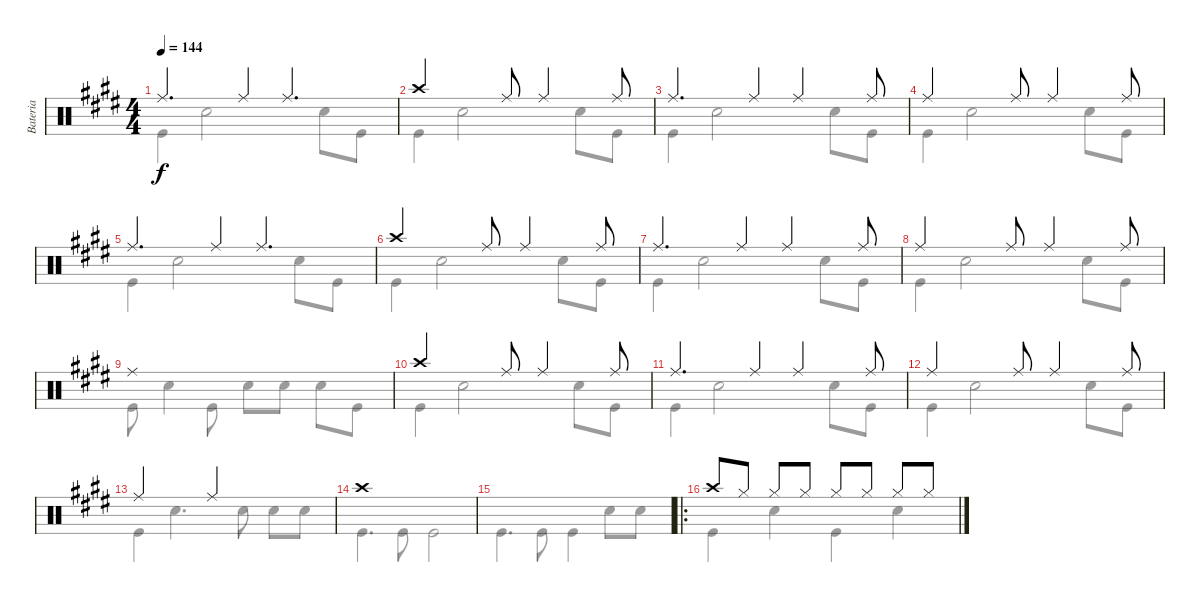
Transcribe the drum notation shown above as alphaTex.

\track ("Bateria" "Bateria") {instrument percussion}
\staff {score}
\articulation defaults
\voice
\ts (4 4)
\tempo 144
\clef neutral
\ks e "Ride (middle)".4{d dy f} "Ride (middle)".4 "Ride (middle)".4{d}
|
"Crash high (hit)".2 "Ride (middle)".8 "Ride (middle)".4 "Ride (middle)".8 |
"Ride (middle)".4{d} "Ride (middle)".4 "Ride (middle)".4 "Ride (middle)".8 |
"Ride (middle)".2 "Ride (middle)".8 "Ride (middle)".4 "Ride (middle)".8 |
"Ride (middle)".4{d} "Ride (middle)".4 "Ride (middle)".4{d} |
"Crash high (hit)".2 "Ride (middle)".8 "Ride (middle)".4 "Ride (middle)".8 |
"Ride (middle)".4{d} "Ride (middle)".4 "Ride (middle)".4 "Ride (middle)".8 |
"Ride (middle)".2 "Ride (middle)".8 "Ride (middle)".4 "Ride (middle)".8 |
"Ride (middle)".1 |
"Crash high (hit)".2 "Ride (middle)".8 "Ride (middle)".4 "Ride (middle)".8 |
"Ride (middle)".4{d} "Ride (middle)".4 "Ride (middle)".4 "Ride (middle)".8 |
"Ride (middle)".2 "Ride (middle)".8 "Ride (middle)".4 "Ride (middle)".8 |
"Ride (middle)".2 "Ride (middle)".2 |
"Crash high (hit)".1 |
|
\ro "Crash high (hit)".8 "Hi-Hat (closed)".8 "Hi-Hat (closed)".8 "Hi-Hat (closed)".8 "Hi-Hat (closed)".8 "Hi-Hat (closed)".8 "Hi-Hat (closed)".8 "Hi-Hat (closed)".8
\voice
\clef neutral
\ottava regular
\simile none
\ks e "Kick (hit)".4{dy f} "Snare (hit) 2".2 "Snare (hit) 2".8 "Kick (hit)".8
|
"Kick (hit)".4 "Snare (hit) 2".2 "Snare (hit) 2".8 "Kick (hit)".8 |
"Kick (hit)".4 "Snare (hit) 2".2 "Snare (hit) 2".8 "Kick (hit)".8 |
"Kick (hit)".4 "Snare (hit) 2".2 "Snare (hit) 2".8 "Kick (hit)".8 |
"Kick (hit)".4 "Snare (hit) 2".2 "Snare (hit) 2".8 "Kick (hit)".8 |
"Kick (hit)".4 "Snare (hit) 2".2 "Snare (hit) 2".8 "Kick (hit)".8 |
"Kick (hit)".4 "Snare (hit) 2".2 "Snare (hit) 2".8 "Kick (hit)".8 |
"Kick (hit)".4 "Snare (hit) 2".2 "Snare (hit) 2".8 "Kick (hit)".8 |
"Kick (hit)".8 "Snare (hit) 2".4 "Kick (hit)".8 "Snare (hit) 2".8 "Snare (hit) 2".8 "Snare (hit) 2".8 "Kick (hit)".8 |
"Kick (hit)".4 "Snare (hit) 2".2 "Snare (hit) 2".8 "Kick (hit)".8 |
"Kick (hit)".4 "Snare (hit) 2".2 "Snare (hit) 2".8 "Kick (hit)".8 |
"Kick (hit)".4 "Snare (hit) 2".2 "Snare (hit) 2".8 "Kick (hit)".8 |
"Kick (hit)".4 "Snare (hit) 2".4{d} "Snare (hit) 2".8 "Snare (hit) 2".8 "Snare (hit) 2".8 |
"Kick (hit)".4{d} "Kick (hit)".8 "Kick (hit)".2 |
"Kick (hit)".4{d} "Kick (hit)".8 "Kick (hit)".4 "Snare (hit) 2".8 "Snare (hit) 2".8 |
"Kick (hit)".4 "Snare (hit) 2".4 "Kick (hit)".4 "Snare (hit) 2".4
